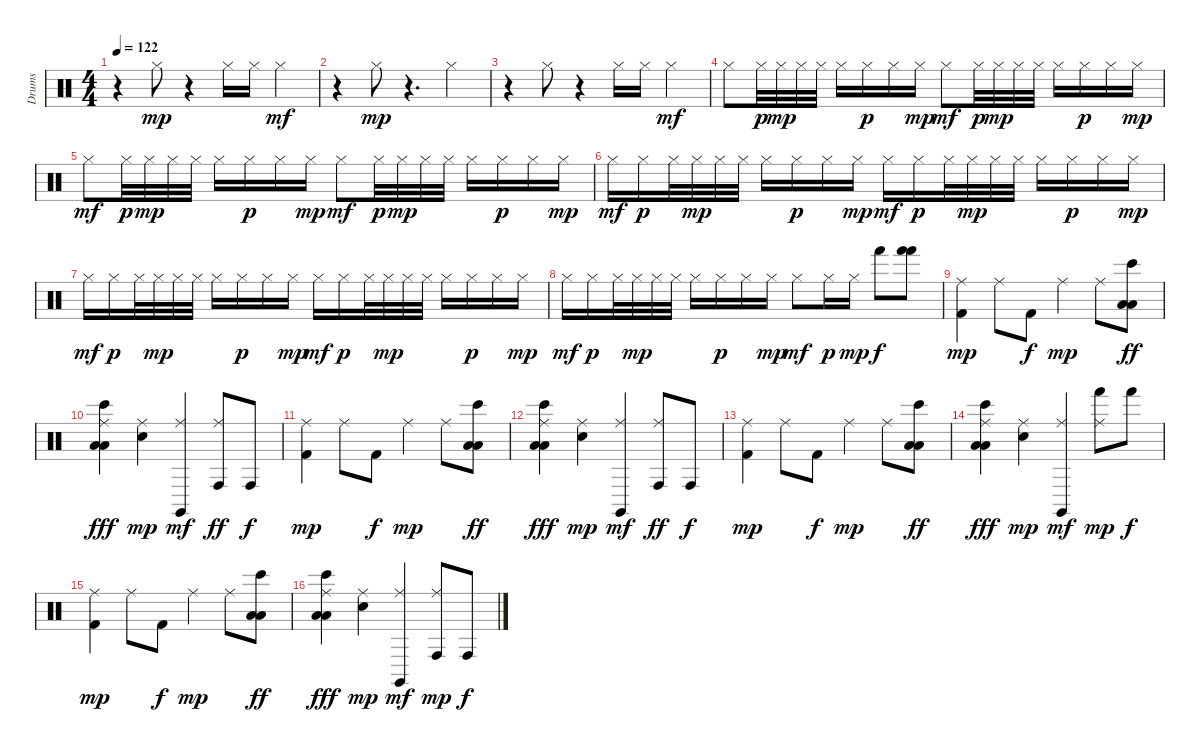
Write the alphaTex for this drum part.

\track ("Drums" "Drums") {instrument percussion}
\staff {score}
\articulation defaults
\ts (4 4)
\tempo 122
\clef neutral
\ks c
r.4{dy mp} "Hi-Hat (closed)".8 r.4 "Hi-Hat (closed)".16 "Hi-Hat (closed)".16 "Hi-Hat (closed)".4{dy mf} |
r.4 "Hi-Hat (closed)".8{dy mp} r.4{d} "Hi-Hat (closed)".4 |
r.4 "Hi-Hat (closed)".8 r.4 "Hi-Hat (closed)".16 "Hi-Hat (closed)".16 "Hi-Hat (closed)".4{dy mf} |
"Hi-Hat (closed)".8 "Hi-Hat (closed)".32{dy p} "Hi-Hat (closed)".32{dy mp} "Hi-Hat (closed)".32 "Hi-Hat (closed)".32 "Hi-Hat (closed)".16 "Hi-Hat (closed)".16{dy p} "Hi-Hat (closed)".16 "Hi-Hat (closed)".16{dy mp} "Hi-Hat (closed)".8{dy mf} "Hi-Hat (closed)".32{dy p} "Hi-Hat (closed)".32{dy mp} "Hi-Hat (closed)".32 "Hi-Hat (closed)".32 "Hi-Hat (closed)".16 "Hi-Hat (closed)".16{dy p} "Hi-Hat (closed)".16 "Hi-Hat (closed)".16{dy mp} |
"Hi-Hat (closed)".8{dy mf} "Hi-Hat (closed)".32{dy p} "Hi-Hat (closed)".32{dy mp} "Hi-Hat (closed)".32 "Hi-Hat (closed)".32 "Hi-Hat (closed)".16 "Hi-Hat (closed)".16{dy p} "Hi-Hat (closed)".16 "Hi-Hat (closed)".16{dy mp} "Hi-Hat (closed)".8{dy mf} "Hi-Hat (closed)".32{dy p} "Hi-Hat (closed)".32{dy mp} "Hi-Hat (closed)".32 "Hi-Hat (closed)".32 "Hi-Hat (closed)".16 "Hi-Hat (closed)".16{dy p} "Hi-Hat (closed)".16 "Hi-Hat (closed)".16{dy mp} |
"Hi-Hat (closed)".16{dy mf} "Hi-Hat (closed)".16{dy p} "Hi-Hat (closed)".32 "Hi-Hat (closed)".32{dy mp} "Hi-Hat (closed)".32 "Hi-Hat (closed)".32 "Hi-Hat (closed)".16 "Hi-Hat (closed)".16{dy p} "Hi-Hat (closed)".16 "Hi-Hat (closed)".16{dy mp} "Hi-Hat (closed)".16{dy mf} "Hi-Hat (closed)".16{dy p} "Hi-Hat (closed)".32 "Hi-Hat (closed)".32{dy mp} "Hi-Hat (closed)".32 "Hi-Hat (closed)".32 "Hi-Hat (closed)".16 "Hi-Hat (closed)".16{dy p} "Hi-Hat (closed)".16 "Hi-Hat (closed)".16{dy mp} |
"Hi-Hat (closed)".16{dy mf} "Hi-Hat (closed)".16{dy p} "Hi-Hat (closed)".32 "Hi-Hat (closed)".32{dy mp} "Hi-Hat (closed)".32 "Hi-Hat (closed)".32 "Hi-Hat (closed)".16 "Hi-Hat (closed)".16{dy p} "Hi-Hat (closed)".16 "Hi-Hat (closed)".16{dy mp} "Hi-Hat (closed)".16{dy mf} "Hi-Hat (closed)".16{dy p} "Hi-Hat (closed)".32 "Hi-Hat (closed)".32{dy mp} "Hi-Hat (closed)".32 "Hi-Hat (closed)".32 "Hi-Hat (closed)".16 "Hi-Hat (closed)".16{dy p} "Hi-Hat (closed)".16 "Hi-Hat (closed)".16{dy mp} |
"Hi-Hat (closed)".16{dy mf} "Hi-Hat (closed)".16{dy p} "Hi-Hat (closed)".32 "Hi-Hat (closed)".32{dy mp} "Hi-Hat (closed)".32 "Hi-Hat (closed)".32 "Hi-Hat (closed)".16 "Hi-Hat (closed)".16{dy p} "Hi-Hat (closed)".16 "Hi-Hat (closed)".16{dy mp} "Hi-Hat (closed)".8{dy mf} "Hi-Hat (closed)".16{dy p} "Hi-Hat (closed)".16{dy mp} "Hand (hit)".8{dy f} ("Hand (hit)" "Hand (hit)").8 |
("Ride (middle)" "Kick (hit) 2").4{dy mp} "Ride (middle)".8 "Kick (hit) 2".8{dy f} "Ride (middle)".4{dy mp} "Ride (middle)".8 ("Low Floor Tom (hit)" "Low Floor Tom (hit)" "Bongo High (hit)").8{dy ff} |
("Low Floor Tom (hit)" "Low Floor Tom (hit)" "Ride (middle)" "Bongo High (hit)").4{dy fff} ("Snare (hit) 2" "Ride (middle)").4{dy mp} ("Ride (middle)" "Claves (hit)").4{dy mf} ("Ride (middle)" "Conga high (hit)").8{dy ff} "Conga high (hit)".8{dy f} |
("Ride (middle)" "Kick (hit) 2").4{dy mp} "Ride (middle)".8 "Kick (hit) 2".8{dy f} "Ride (middle)".4{dy mp} "Ride (middle)".8 ("Low Floor Tom (hit)" "Low Floor Tom (hit)" "Bongo High (hit)").8{dy ff} |
("Low Floor Tom (hit)" "Low Floor Tom (hit)" "Ride (middle)" "Bongo High (hit)").4{dy fff} ("Snare (hit) 2" "Ride (middle)").4{dy mp} ("Ride (middle)" "Claves (hit)").4{dy mf} ("Ride (middle)" "Conga high (hit)").8{dy ff} "Conga high (hit)".8{dy f} |
("Ride (middle)" "Kick (hit) 2").4{dy mp} "Ride (middle)".8 "Kick (hit) 2".8{dy f} "Ride (middle)".4{dy mp} "Ride (middle)".8 ("Low Floor Tom (hit)" "Low Floor Tom (hit)" "Bongo High (hit)").8{dy ff} |
("Low Floor Tom (hit)" "Low Floor Tom (hit)" "Ride (middle)" "Bongo High (hit)").4{dy fff} ("Snare (hit) 2" "Ride (middle)").4{dy mp} ("Ride (middle)" "Claves (hit)").4{dy mf} ("Hand (hit)" "Ride (middle)").8{dy mp} "Hand (hit)".8{dy f} |
("Ride (middle)" "Kick (hit) 2").4{dy mp} "Ride (middle)".8 "Kick (hit) 2".8{dy f} "Ride (middle)".4{dy mp} "Ride (middle)".8 ("Low Floor Tom (hit)" "Low Floor Tom (hit)" "Bongo High (hit)").8{dy ff} |
("Low Floor Tom (hit)" "Low Floor Tom (hit)" "Ride (middle)" "Bongo High (hit)").4{dy fff} ("Snare (hit) 2" "Ride (middle)").4{dy mp} ("Ride (middle)" "Claves (hit)").4{dy mf} ("Ride (middle)" "Conga high (hit)").8{dy mp} "Conga high (hit)".8{dy f}
